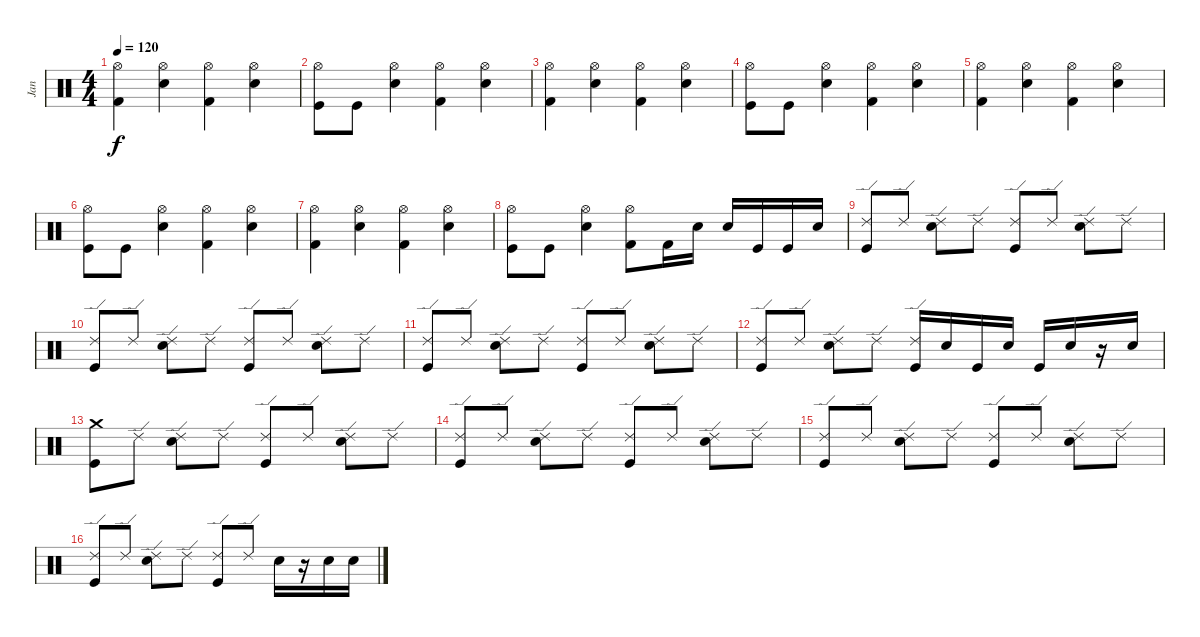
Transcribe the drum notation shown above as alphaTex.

\track ("Jan" "Jan") {instrument percussion}
\staff {score}
\articulation defaults
\ts (4 4)
\tempo 120
\clef neutral
\ks c
("Hi-Hat (open)" "Kick (hit) 2").4{dy f} ("Hi-Hat (open)" "Snare (hit) 2").4 ("Hi-Hat (open)" "Kick (hit) 2").4 ("Hi-Hat (open)" "Snare (hit) 2").4 |
("Hi-Hat (open)" "Kick (hit)").8 "Kick (hit)".8 ("Hi-Hat (open)" "Snare (hit) 2").4 ("Hi-Hat (open)" "Kick (hit) 2").4 ("Hi-Hat (open)" "Snare (hit) 2").4 |
("Hi-Hat (open)" "Kick (hit) 2").4 ("Hi-Hat (open)" "Snare (hit) 2").4 ("Hi-Hat (open)" "Kick (hit) 2").4 ("Hi-Hat (open)" "Snare (hit) 2").4 |
("Hi-Hat (open)" "Kick (hit)").8 "Kick (hit)".8 ("Hi-Hat (open)" "Snare (hit) 2").4 ("Hi-Hat (open)" "Kick (hit) 2").4 ("Hi-Hat (open)" "Snare (hit) 2").4 |
("Hi-Hat (open)" "Kick (hit) 2").4 ("Hi-Hat (open)" "Snare (hit) 2").4 ("Hi-Hat (open)" "Kick (hit) 2").4 ("Hi-Hat (open)" "Snare (hit) 2").4 |
("Hi-Hat (open)" "Kick (hit)").8 "Kick (hit)".8 ("Hi-Hat (open)" "Snare (hit) 2").4 ("Hi-Hat (open)" "Kick (hit) 2").4 ("Hi-Hat (open)" "Snare (hit) 2").4 |
("Hi-Hat (open)" "Kick (hit) 2").4 ("Hi-Hat (open)" "Snare (hit) 2").4 ("Hi-Hat (open)" "Kick (hit) 2").4 ("Hi-Hat (open)" "Snare (hit) 2").4 |
("Hi-Hat (open)" "Kick (hit)").8 "Kick (hit)".8 ("Hi-Hat (open)" "Snare (hit) 2").4 ("Hi-Hat (open)" "Kick (hit) 2").8 "Kick (hit) 2".16 "Snare (hit) 2".16 "Snare (hit) 2".16 "Kick (hit)".16 "Kick (hit)".16 "Snare (hit) 2".16 |
("Ride (edge) 2" "Kick (hit)").8 "Ride (edge) 2".8 ("Ride (edge) 2" "Snare (hit) 2").8 "Ride (edge) 2".8 ("Ride (edge) 2" "Kick (hit)").8 "Ride (edge) 2".8 ("Ride (edge) 2" "Snare (hit) 2").8 "Ride (edge) 2".8 |
("Ride (edge) 2" "Kick (hit)").8 "Ride (edge) 2".8 ("Ride (edge) 2" "Snare (hit) 2").8 "Ride (edge) 2".8 ("Ride (edge) 2" "Kick (hit)").8 "Ride (edge) 2".8 ("Ride (edge) 2" "Snare (hit) 2").8 "Ride (edge) 2".8 |
("Ride (edge) 2" "Kick (hit)").8 "Ride (edge) 2".8 ("Ride (edge) 2" "Snare (hit) 2").8 "Ride (edge) 2".8 ("Ride (edge) 2" "Kick (hit)").8 "Ride (edge) 2".8 ("Ride (edge) 2" "Snare (hit) 2").8 "Ride (edge) 2".8 |
("Ride (edge) 2" "Kick (hit)").8 "Ride (edge) 2".8 ("Ride (edge) 2" "Snare (hit) 2").8 "Ride (edge) 2".8 ("Ride (edge) 2" "Kick (hit)").16 "Snare (hit) 2".16 "Kick (hit)".16 "Snare (hit) 2".16 "Kick (hit)".16 "Snare (hit) 2".16 r.16 "Snare (hit) 2".16 |
("Crash medium (hit)" "Kick (hit)").8 "Ride (edge) 2".8 ("Ride (edge) 2" "Snare (hit) 2").8 "Ride (edge) 2".8 ("Ride (edge) 2" "Kick (hit)").8 "Ride (edge) 2".8 ("Ride (edge) 2" "Snare (hit) 2").8 "Ride (edge) 2".8 |
("Ride (edge) 2" "Kick (hit)").8 "Ride (edge) 2".8 ("Ride (edge) 2" "Snare (hit) 2").8 "Ride (edge) 2".8 ("Ride (edge) 2" "Kick (hit)").8 "Ride (edge) 2".8 ("Ride (edge) 2" "Snare (hit) 2").8 "Ride (edge) 2".8 |
("Ride (edge) 2" "Kick (hit)").8 "Ride (edge) 2".8 ("Ride (edge) 2" "Snare (hit) 2").8 "Ride (edge) 2".8 ("Ride (edge) 2" "Kick (hit)").8 "Ride (edge) 2".8 ("Ride (edge) 2" "Snare (hit) 2").8 "Ride (edge) 2".8 |
("Ride (edge) 2" "Kick (hit)").8 "Ride (edge) 2".8 ("Ride (edge) 2" "Snare (hit) 2").8 "Ride (edge) 2".8 ("Ride (edge) 2" "Kick (hit)").8 "Ride (edge) 2".8 "Snare (hit) 2".16 r.16 "Snare (hit) 2".16 "Snare (hit) 2".16
